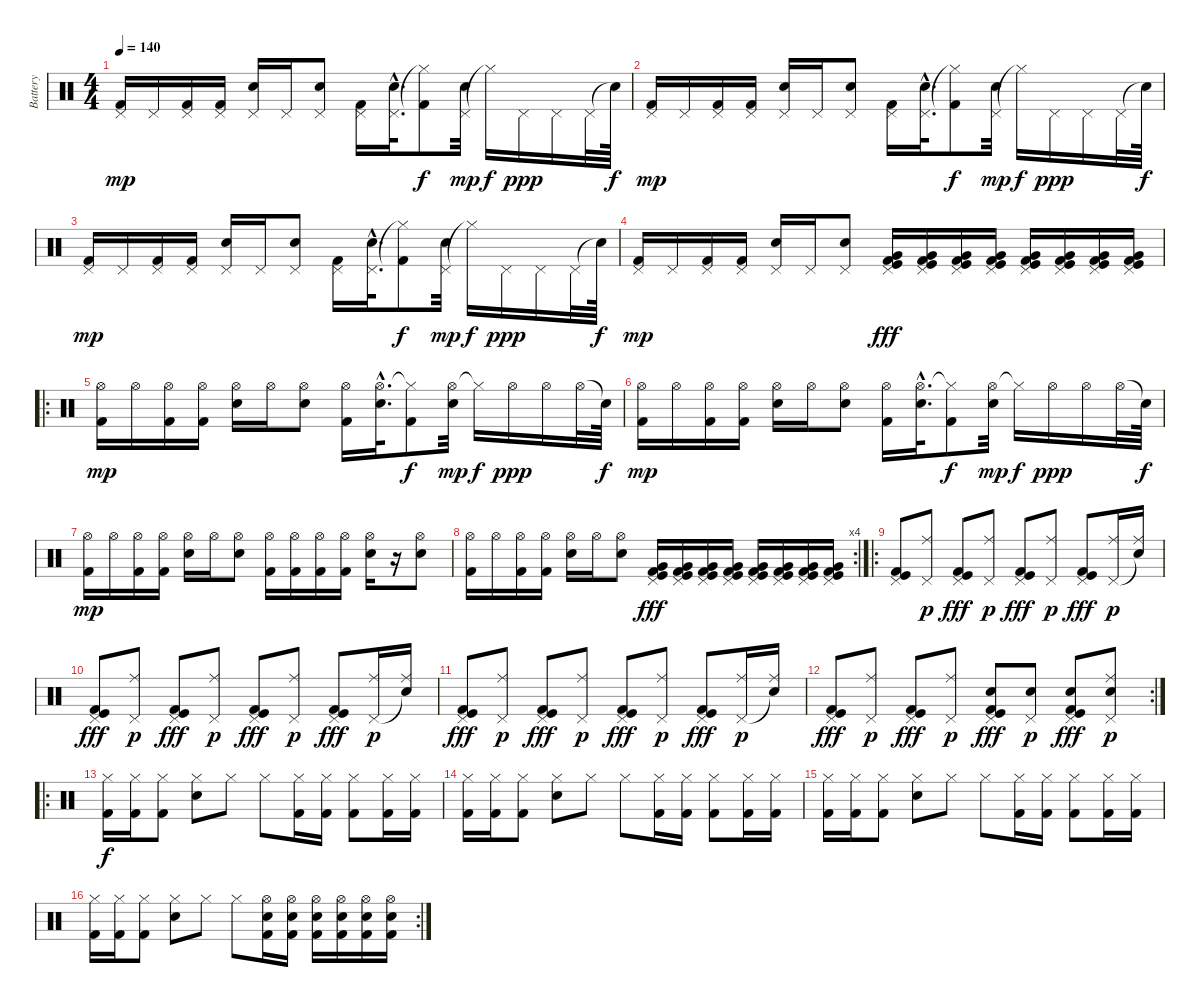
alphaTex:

\track ("Battery" "Battery") {instrument percussion}
\staff {score}
\articulation defaults
\ts (4 4)
\tempo 140
\clef neutral
\ks c
("Pedal Hi-Hat (hit)" "Kick (hit) 2").16{dy mp} "Pedal Hi-Hat (hit)".16 ("Pedal Hi-Hat (hit)" "Kick (hit) 2").16 ("Pedal Hi-Hat (hit)" "Kick (hit) 2").16 ("Pedal Hi-Hat (hit)" "Electric Snare (hit)").16 "Pedal Hi-Hat (hit)".16 ("Pedal Hi-Hat (hit)" "Electric Snare (hit)").8 ("Pedal Hi-Hat (hit)" "Kick (hit) 2").16 ("Pedal Hi-Hat (hit)"{hac} "Electric Snare (hit)"{hac}).32{d} ("Hi-Hat (closed)"{t} "Kick (hit) 2").8{dy f} ("Pedal Hi-Hat (hit)" "Electric Snare (hit)").32{dy mp} "Hi-Hat (closed)"{t}.16{dy f} "Pedal Hi-Hat (hit)".16{dy ppp} "Pedal Hi-Hat (hit)".16 "Pedal Hi-Hat (hit)".32 "Snare (hit)"{t}.64{dy f} |
("Pedal Hi-Hat (hit)" "Kick (hit) 2").16{dy mp} "Pedal Hi-Hat (hit)".16 ("Pedal Hi-Hat (hit)" "Kick (hit) 2").16 ("Pedal Hi-Hat (hit)" "Kick (hit) 2").16 ("Pedal Hi-Hat (hit)" "Electric Snare (hit)").16 "Pedal Hi-Hat (hit)".16 ("Pedal Hi-Hat (hit)" "Electric Snare (hit)").8 ("Pedal Hi-Hat (hit)" "Kick (hit) 2").16 ("Pedal Hi-Hat (hit)"{hac} "Electric Snare (hit)"{hac}).32{d} ("Hi-Hat (closed)"{t} "Kick (hit) 2").8{dy f} ("Pedal Hi-Hat (hit)" "Electric Snare (hit)").32{dy mp} "Hi-Hat (closed)"{t}.16{dy f} "Pedal Hi-Hat (hit)".16{dy ppp} "Pedal Hi-Hat (hit)".16 "Pedal Hi-Hat (hit)".32 "Snare (hit)"{t}.64{dy f} |
("Pedal Hi-Hat (hit)" "Kick (hit) 2").16{dy mp} "Pedal Hi-Hat (hit)".16 ("Pedal Hi-Hat (hit)" "Kick (hit) 2").16 ("Pedal Hi-Hat (hit)" "Kick (hit) 2").16 ("Pedal Hi-Hat (hit)" "Electric Snare (hit)").16 "Pedal Hi-Hat (hit)".16 ("Pedal Hi-Hat (hit)" "Electric Snare (hit)").8 ("Pedal Hi-Hat (hit)" "Kick (hit) 2").16 ("Pedal Hi-Hat (hit)"{hac} "Electric Snare (hit)"{hac}).32{d} ("Hi-Hat (closed)"{t} "Kick (hit) 2").8{dy f} ("Pedal Hi-Hat (hit)" "Electric Snare (hit)").32{dy mp} "Hi-Hat (closed)"{t}.16{dy f} "Pedal Hi-Hat (hit)".16{dy ppp} "Pedal Hi-Hat (hit)".16 "Pedal Hi-Hat (hit)".32 "Snare (hit)"{t}.64{dy f} |
("Pedal Hi-Hat (hit)" "Kick (hit) 2").16{dy mp} "Pedal Hi-Hat (hit)".16 ("Pedal Hi-Hat (hit)" "Kick (hit) 2").16 ("Pedal Hi-Hat (hit)" "Kick (hit) 2").16 ("Pedal Hi-Hat (hit)" "Electric Snare (hit)").16 "Pedal Hi-Hat (hit)".16 ("Pedal Hi-Hat (hit)" "Electric Snare (hit)").8 ("Pedal Hi-Hat (hit)" "Kick (hit) 2" "Kick (hit)" "Very Low Tom (hit)").16{dy fff} ("Pedal Hi-Hat (hit)" "Kick (hit) 2" "Kick (hit)" "Very Low Tom (hit)").16 ("Pedal Hi-Hat (hit)" "Kick (hit) 2" "Kick (hit)" "Very Low Tom (hit)").16 ("Pedal Hi-Hat (hit)" "Kick (hit) 2" "Kick (hit)" "Very Low Tom (hit)").16 ("Pedal Hi-Hat (hit)" "Kick (hit) 2" "Kick (hit)" "Very Low Tom (hit)").16 ("Pedal Hi-Hat (hit)" "Kick (hit) 2" "Kick (hit)" "Very Low Tom (hit)").16 ("Pedal Hi-Hat (hit)" "Kick (hit) 2" "Kick (hit)" "Very Low Tom (hit)").16 ("Pedal Hi-Hat (hit)" "Kick (hit) 2" "Kick (hit)" "Very Low Tom (hit)").16 |
\ro
("Hi-Hat (open)" "Kick (hit) 2").16{dy mp} "Hi-Hat (open)".16 ("Hi-Hat (open)" "Kick (hit) 2").16 ("Hi-Hat (open)" "Kick (hit) 2").16 ("Hi-Hat (open)" "Electric Snare (hit)").16 "Hi-Hat (open)".16 ("Hi-Hat (open)" "Electric Snare (hit)").8 ("Hi-Hat (open)" "Kick (hit) 2").16 ("Hi-Hat (open)"{hac} "Electric Snare (hit)"{hac}).32{d} ("Hi-Hat (closed)"{t} "Kick (hit) 2").8{dy f} ("Hi-Hat (open)" "Electric Snare (hit)").32{dy mp} "Hi-Hat (closed)"{t}.16{dy f} "Hi-Hat (open)".16{dy ppp} "Hi-Hat (open)".16 "Hi-Hat (open)".32 "Snare (hit)"{t}.64{dy f} |
("Hi-Hat (open)" "Kick (hit) 2").16{dy mp} "Hi-Hat (open)".16 ("Hi-Hat (open)" "Kick (hit) 2").16 ("Hi-Hat (open)" "Kick (hit) 2").16 ("Hi-Hat (open)" "Electric Snare (hit)").16 "Hi-Hat (open)".16 ("Hi-Hat (open)" "Electric Snare (hit)").8 ("Hi-Hat (open)" "Kick (hit) 2").16 ("Hi-Hat (open)"{hac} "Electric Snare (hit)"{hac}).32{d} ("Hi-Hat (closed)"{t} "Kick (hit) 2").8{dy f} ("Hi-Hat (open)" "Electric Snare (hit)").32{dy mp} "Hi-Hat (closed)"{t}.16{dy f} "Hi-Hat (open)".16{dy ppp} "Hi-Hat (open)".16 "Hi-Hat (open)".32 "Snare (hit)"{t}.64{dy f} |
("Hi-Hat (open)" "Kick (hit) 2").16{dy mp} "Hi-Hat (open)".16 ("Hi-Hat (open)" "Kick (hit) 2").16 ("Hi-Hat (open)" "Kick (hit) 2").16 ("Hi-Hat (open)" "Electric Snare (hit)").16 "Hi-Hat (open)".16 ("Hi-Hat (open)" "Electric Snare (hit)").8 ("Hi-Hat (open)" "Kick (hit) 2").16 ("Hi-Hat (open)" "Kick (hit) 2").16 ("Hi-Hat (open)" "Kick (hit) 2").16 ("Hi-Hat (open)" "Kick (hit) 2").16 ("Hi-Hat (open)" "Electric Snare (hit)").16 r.16 ("Hi-Hat (open)" "Electric Snare (hit)").8 |
\rc 4
("Hi-Hat (open)" "Kick (hit) 2").16 "Hi-Hat (open)".16 ("Hi-Hat (open)" "Kick (hit) 2").16 ("Hi-Hat (open)" "Kick (hit) 2").16 ("Hi-Hat (open)" "Electric Snare (hit)").16 "Hi-Hat (open)".16 ("Hi-Hat (open)" "Electric Snare (hit)").8 ("Pedal Hi-Hat (hit)" "Kick (hit) 2" "Kick (hit)" "Very Low Tom (hit)").16{dy fff} ("Pedal Hi-Hat (hit)" "Kick (hit) 2" "Kick (hit)" "Very Low Tom (hit)").16 ("Pedal Hi-Hat (hit)" "Kick (hit) 2" "Kick (hit)" "Very Low Tom (hit)").16 ("Pedal Hi-Hat (hit)" "Kick (hit) 2" "Kick (hit)" "Very Low Tom (hit)").16 ("Pedal Hi-Hat (hit)" "Kick (hit) 2" "Kick (hit)" "Very Low Tom (hit)").16 ("Pedal Hi-Hat (hit)" "Kick (hit) 2" "Kick (hit)" "Very Low Tom (hit)").16 ("Pedal Hi-Hat (hit)" "Kick (hit) 2" "Kick (hit)" "Very Low Tom (hit)").16 ("Pedal Hi-Hat (hit)" "Kick (hit) 2" "Kick (hit)" "Very Low Tom (hit)").16 |
\ro
("Pedal Hi-Hat (hit)" "Kick (hit)" "Kick (hit) 2").8 ("Ride (middle)" "Pedal Hi-Hat (hit)").8{dy p} ("Pedal Hi-Hat (hit)" "Kick (hit)" "Kick (hit) 2").8{dy fff} ("Ride (middle)" "Pedal Hi-Hat (hit)").8{dy p} ("Pedal Hi-Hat (hit)" "Kick (hit)" "Kick (hit) 2").8{dy fff} ("Ride (middle)" "Pedal Hi-Hat (hit)").8{dy p} ("Pedal Hi-Hat (hit)" "Kick (hit)" "Kick (hit) 2").8{dy fff} ("Ride (middle)" "Pedal Hi-Hat (hit)").16{dy p} ("Ride (middle)" "Snare (hit)"{t}).16 |
("Pedal Hi-Hat (hit)" "Kick (hit)" "Kick (hit) 2").8{dy fff} ("Ride (middle)" "Pedal Hi-Hat (hit)").8{dy p} ("Pedal Hi-Hat (hit)" "Kick (hit)" "Kick (hit) 2").8{dy fff} ("Ride (middle)" "Pedal Hi-Hat (hit)").8{dy p} ("Pedal Hi-Hat (hit)" "Kick (hit)" "Kick (hit) 2").8{dy fff} ("Ride (middle)" "Pedal Hi-Hat (hit)").8{dy p} ("Pedal Hi-Hat (hit)" "Kick (hit)" "Kick (hit) 2").8{dy fff} ("Ride (middle)" "Pedal Hi-Hat (hit)").16{dy p} ("Ride (middle)" "Snare (hit)"{t}).16 |
("Pedal Hi-Hat (hit)" "Kick (hit)" "Kick (hit) 2").8{dy fff} ("Ride (middle)" "Pedal Hi-Hat (hit)").8{dy p} ("Pedal Hi-Hat (hit)" "Kick (hit)" "Kick (hit) 2").8{dy fff} ("Ride (middle)" "Pedal Hi-Hat (hit)").8{dy p} ("Pedal Hi-Hat (hit)" "Kick (hit)" "Kick (hit) 2").8{dy fff} ("Ride (middle)" "Pedal Hi-Hat (hit)").8{dy p} ("Pedal Hi-Hat (hit)" "Kick (hit)" "Kick (hit) 2").8{dy fff} ("Ride (middle)" "Pedal Hi-Hat (hit)").16{dy p} ("Ride (middle)" "Snare (hit)"{t}).16 |
\rc 2
("Pedal Hi-Hat (hit)" "Kick (hit)" "Kick (hit) 2").8{dy fff} ("Ride (middle)" "Pedal Hi-Hat (hit)").8{dy p} ("Pedal Hi-Hat (hit)" "Kick (hit)" "Kick (hit) 2").8{dy fff} ("Ride (middle)" "Pedal Hi-Hat (hit)").8{dy p} ("Electric Snare (hit)" "Pedal Hi-Hat (hit)" "Kick (hit)" "Kick (hit) 2").8{dy fff} ("Electric Snare (hit)" "Pedal Hi-Hat (hit)").8{dy p} ("Electric Snare (hit)" "Pedal Hi-Hat (hit)" "Kick (hit)" "Kick (hit) 2").8{dy fff} ("Electric Snare (hit)" "Ride (middle)" "Pedal Hi-Hat (hit)").8{dy p} |
\ro
("Hi-Hat (closed)" "Kick (hit) 2").16{dy f} ("Hi-Hat (closed)" "Kick (hit) 2").16 ("Hi-Hat (closed)" "Kick (hit) 2").8 ("Hi-Hat (closed)" "Electric Snare (hit)").8 "Hi-Hat (closed)".8 "Hi-Hat (closed)".8 ("Hi-Hat (closed)" "Kick (hit) 2").16 ("Hi-Hat (closed)" "Kick (hit) 2").16 ("Hi-Hat (closed)" "Kick (hit) 2").8 ("Hi-Hat (closed)" "Kick (hit) 2").16 ("Hi-Hat (closed)" "Kick (hit) 2").16 |
("Hi-Hat (closed)" "Kick (hit) 2").16 ("Hi-Hat (closed)" "Kick (hit) 2").16 ("Hi-Hat (closed)" "Kick (hit) 2").8 ("Hi-Hat (closed)" "Electric Snare (hit)").8 "Hi-Hat (closed)".8 "Hi-Hat (closed)".8 ("Hi-Hat (closed)" "Kick (hit) 2").16 ("Hi-Hat (closed)" "Kick (hit) 2").16 ("Hi-Hat (closed)" "Kick (hit) 2").8 ("Hi-Hat (closed)" "Kick (hit) 2").16 ("Hi-Hat (closed)" "Kick (hit) 2").16 |
("Hi-Hat (closed)" "Kick (hit) 2").16 ("Hi-Hat (closed)" "Kick (hit) 2").16 ("Hi-Hat (closed)" "Kick (hit) 2").8 ("Hi-Hat (closed)" "Electric Snare (hit)").8 "Hi-Hat (closed)".8 "Hi-Hat (closed)".8 ("Hi-Hat (closed)" "Kick (hit) 2").16 ("Hi-Hat (closed)" "Kick (hit) 2").16 ("Hi-Hat (closed)" "Kick (hit) 2").8 ("Hi-Hat (closed)" "Kick (hit) 2").16 ("Hi-Hat (closed)" "Kick (hit) 2").16 |
\rc 2
("Hi-Hat (closed)" "Kick (hit) 2").16 ("Hi-Hat (closed)" "Kick (hit) 2").16 ("Hi-Hat (closed)" "Kick (hit) 2").8 ("Hi-Hat (closed)" "Electric Snare (hit)").8 "Hi-Hat (closed)".8 "Hi-Hat (closed)".8 ("Hi-Hat (open)" "Electric Snare (hit)" "Kick (hit) 2").16 ("Hi-Hat (open)" "Electric Snare (hit)" "Kick (hit) 2").16 ("Hi-Hat (open)" "Electric Snare (hit)" "Kick (hit) 2").16 ("Hi-Hat (open)" "Electric Snare (hit)" "Kick (hit) 2").16 ("Hi-Hat (open)" "Electric Snare (hit)" "Kick (hit) 2").16 ("Hi-Hat (open)" "Electric Snare (hit)" "Kick (hit) 2").16
